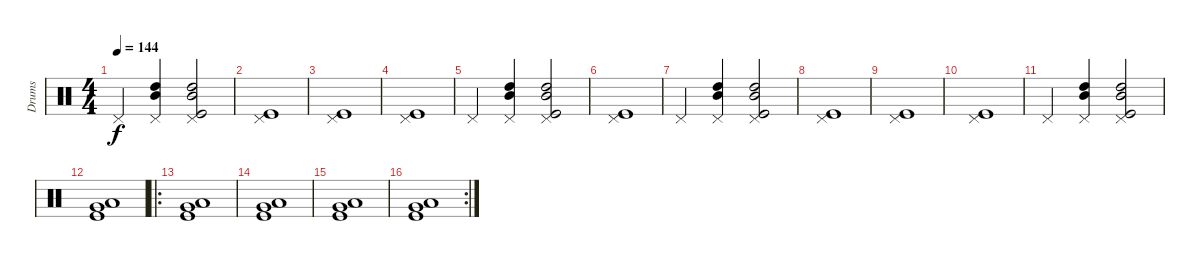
\track ("Drums" "Drums") {instrument percussion}
\staff {score}
\articulation defaults
\ts (4 4)
\tempo 144
\clef neutral
\ks c "Pedal Hi-Hat (hit)".4{dy f}
("Pedal Hi-Hat (hit)" "High Tom (hit)" "Mid Tom (hit)").4 ("Pedal Hi-Hat (hit)" "High Tom (hit)" "Mid Tom (hit)" "Kick (hit)").2 |
("Pedal Hi-Hat (hit)" "Kick (hit)").1 |
("Pedal Hi-Hat (hit)" "Kick (hit)").1 |
("Pedal Hi-Hat (hit)" "Kick (hit)").1 |
"Pedal Hi-Hat (hit)".4 ("Pedal Hi-Hat (hit)" "High Tom (hit)" "Mid Tom (hit)").4 ("Pedal Hi-Hat (hit)" "High Tom (hit)" "Mid Tom (hit)" "Kick (hit)").2 |
("Pedal Hi-Hat (hit)" "Kick (hit)").1 |
"Pedal Hi-Hat (hit)".4 ("Pedal Hi-Hat (hit)" "High Tom (hit)" "Mid Tom (hit)").4 ("Pedal Hi-Hat (hit)" "High Tom (hit)" "Mid Tom (hit)" "Kick (hit)").2 |
("Pedal Hi-Hat (hit)" "Kick (hit)").1 |
("Pedal Hi-Hat (hit)" "Kick (hit)").1 |
("Pedal Hi-Hat (hit)" "Kick (hit)").1 |
"Pedal Hi-Hat (hit)".4 ("Pedal Hi-Hat (hit)" "High Tom (hit)" "Mid Tom (hit)").4 ("Pedal Hi-Hat (hit)" "High Tom (hit)" "Mid Tom (hit)" "Kick (hit)").2 |
("Low Tom (hit)" "Very Low Tom (hit)" "Kick (hit)").1 |
\ro
("Low Tom (hit)" "Very Low Tom (hit)" "Kick (hit)").1 |
("Low Tom (hit)" "Very Low Tom (hit)" "Kick (hit)").1 |
("Low Tom (hit)" "Very Low Tom (hit)" "Kick (hit)").1 |
\rc 2
("Low Tom (hit)" "Very Low Tom (hit)" "Kick (hit)").1
